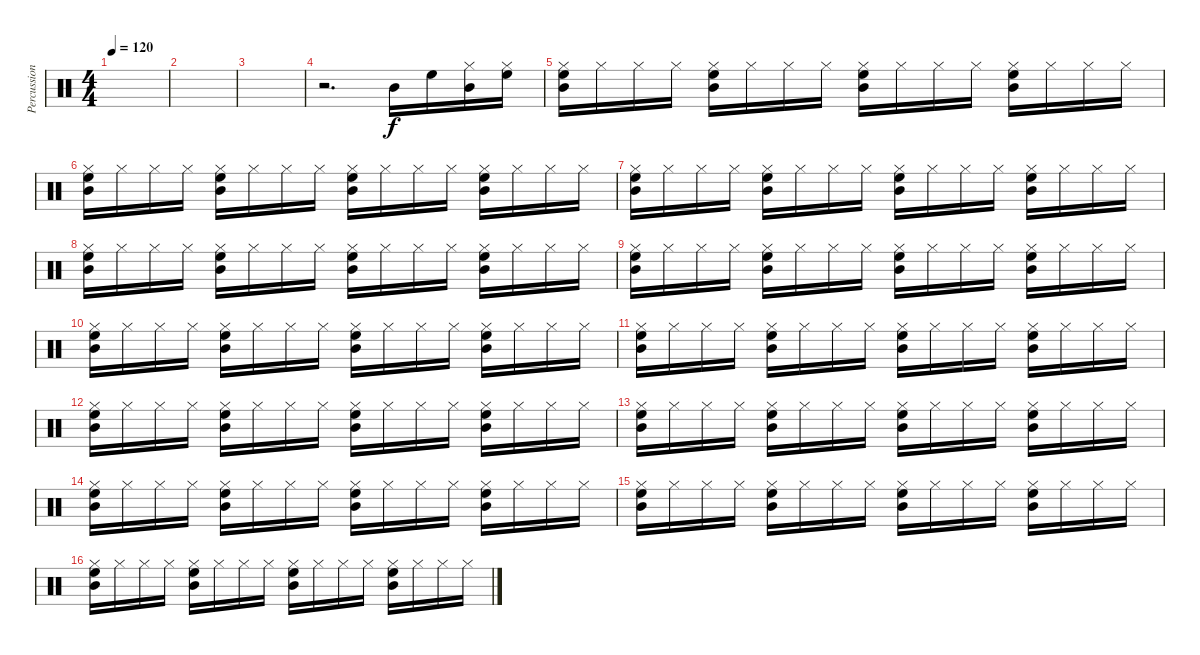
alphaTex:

\track ("Percussion" "Percussion") {instrument percussion}
\staff {score}
\articulation defaults
\ts (4 4)
\tempo 120
\clef neutral
\ks c
|
|
|
r.2{d} "Mid Tom (hit)".16 "High Floor Tom (hit)".16 ("Hi-Hat (closed)" "Mid Tom (hit)").16 ("Hi-Hat (closed)" "High Floor Tom (hit)").16 |
("Hi-Hat (closed)" "Mid Tom (hit)" "High Floor Tom (hit)").16 "Hi-Hat (closed)".16 "Hi-Hat (closed)".16 "Hi-Hat (closed)".16 ("Hi-Hat (closed)" "Mid Tom (hit)" "High Floor Tom (hit)").16 "Hi-Hat (closed)".16 "Hi-Hat (closed)".16 "Hi-Hat (closed)".16 ("Hi-Hat (closed)" "Mid Tom (hit)" "High Floor Tom (hit)").16 "Hi-Hat (closed)".16 "Hi-Hat (closed)".16 "Hi-Hat (closed)".16 ("Hi-Hat (closed)" "Mid Tom (hit)" "High Floor Tom (hit)").16 "Hi-Hat (closed)".16 "Hi-Hat (closed)".16 "Hi-Hat (closed)".16 |
("Hi-Hat (closed)" "Mid Tom (hit)" "High Floor Tom (hit)").16 "Hi-Hat (closed)".16 "Hi-Hat (closed)".16 "Hi-Hat (closed)".16 ("Hi-Hat (closed)" "Mid Tom (hit)" "High Floor Tom (hit)").16 "Hi-Hat (closed)".16 "Hi-Hat (closed)".16 "Hi-Hat (closed)".16 ("Hi-Hat (closed)" "Mid Tom (hit)" "High Floor Tom (hit)").16 "Hi-Hat (closed)".16 "Hi-Hat (closed)".16 "Hi-Hat (closed)".16 ("Hi-Hat (closed)" "Mid Tom (hit)" "High Floor Tom (hit)").16 "Hi-Hat (closed)".16 "Hi-Hat (closed)".16 "Hi-Hat (closed)".16 |
("Hi-Hat (closed)" "Mid Tom (hit)" "High Floor Tom (hit)").16 "Hi-Hat (closed)".16 "Hi-Hat (closed)".16 "Hi-Hat (closed)".16 ("Hi-Hat (closed)" "Mid Tom (hit)" "High Floor Tom (hit)").16 "Hi-Hat (closed)".16 "Hi-Hat (closed)".16 "Hi-Hat (closed)".16 ("Hi-Hat (closed)" "Mid Tom (hit)" "High Floor Tom (hit)").16 "Hi-Hat (closed)".16 "Hi-Hat (closed)".16 "Hi-Hat (closed)".16 ("Hi-Hat (closed)" "Mid Tom (hit)" "High Floor Tom (hit)").16 "Hi-Hat (closed)".16 "Hi-Hat (closed)".16 "Hi-Hat (closed)".16 |
("Hi-Hat (closed)" "Mid Tom (hit)" "High Floor Tom (hit)").16 "Hi-Hat (closed)".16 "Hi-Hat (closed)".16 "Hi-Hat (closed)".16 ("Hi-Hat (closed)" "Mid Tom (hit)" "High Floor Tom (hit)").16 "Hi-Hat (closed)".16 "Hi-Hat (closed)".16 "Hi-Hat (closed)".16 ("Hi-Hat (closed)" "Mid Tom (hit)" "High Floor Tom (hit)").16 "Hi-Hat (closed)".16 "Hi-Hat (closed)".16 "Hi-Hat (closed)".16 ("Hi-Hat (closed)" "Mid Tom (hit)" "High Floor Tom (hit)").16 "Hi-Hat (closed)".16 "Hi-Hat (closed)".16 "Hi-Hat (closed)".16 |
("Hi-Hat (closed)" "Mid Tom (hit)" "High Floor Tom (hit)").16 "Hi-Hat (closed)".16 "Hi-Hat (closed)".16 "Hi-Hat (closed)".16 ("Hi-Hat (closed)" "Mid Tom (hit)" "High Floor Tom (hit)").16 "Hi-Hat (closed)".16 "Hi-Hat (closed)".16 "Hi-Hat (closed)".16 ("Hi-Hat (closed)" "Mid Tom (hit)" "High Floor Tom (hit)").16 "Hi-Hat (closed)".16 "Hi-Hat (closed)".16 "Hi-Hat (closed)".16 ("Hi-Hat (closed)" "Mid Tom (hit)" "High Floor Tom (hit)").16 "Hi-Hat (closed)".16 "Hi-Hat (closed)".16 "Hi-Hat (closed)".16 |
("Hi-Hat (closed)" "Mid Tom (hit)" "High Floor Tom (hit)").16 "Hi-Hat (closed)".16 "Hi-Hat (closed)".16 "Hi-Hat (closed)".16 ("Hi-Hat (closed)" "Mid Tom (hit)" "High Floor Tom (hit)").16 "Hi-Hat (closed)".16 "Hi-Hat (closed)".16 "Hi-Hat (closed)".16 ("Hi-Hat (closed)" "Mid Tom (hit)" "High Floor Tom (hit)").16 "Hi-Hat (closed)".16 "Hi-Hat (closed)".16 "Hi-Hat (closed)".16 ("Hi-Hat (closed)" "Mid Tom (hit)" "High Floor Tom (hit)").16 "Hi-Hat (closed)".16 "Hi-Hat (closed)".16 "Hi-Hat (closed)".16 |
("Hi-Hat (closed)" "Mid Tom (hit)" "High Floor Tom (hit)").16 "Hi-Hat (closed)".16 "Hi-Hat (closed)".16 "Hi-Hat (closed)".16 ("Hi-Hat (closed)" "Mid Tom (hit)" "High Floor Tom (hit)").16 "Hi-Hat (closed)".16 "Hi-Hat (closed)".16 "Hi-Hat (closed)".16 ("Hi-Hat (closed)" "Mid Tom (hit)" "High Floor Tom (hit)").16 "Hi-Hat (closed)".16 "Hi-Hat (closed)".16 "Hi-Hat (closed)".16 ("Hi-Hat (closed)" "Mid Tom (hit)" "High Floor Tom (hit)").16 "Hi-Hat (closed)".16 "Hi-Hat (closed)".16 "Hi-Hat (closed)".16 |
("Hi-Hat (closed)" "Mid Tom (hit)" "High Floor Tom (hit)").16 "Hi-Hat (closed)".16 "Hi-Hat (closed)".16 "Hi-Hat (closed)".16 ("Hi-Hat (closed)" "Mid Tom (hit)" "High Floor Tom (hit)").16 "Hi-Hat (closed)".16 "Hi-Hat (closed)".16 "Hi-Hat (closed)".16 ("Hi-Hat (closed)" "Mid Tom (hit)" "High Floor Tom (hit)").16 "Hi-Hat (closed)".16 "Hi-Hat (closed)".16 "Hi-Hat (closed)".16 ("Hi-Hat (closed)" "Mid Tom (hit)" "High Floor Tom (hit)").16 "Hi-Hat (closed)".16 "Hi-Hat (closed)".16 "Hi-Hat (closed)".16 |
("Hi-Hat (closed)" "Mid Tom (hit)" "High Floor Tom (hit)").16 "Hi-Hat (closed)".16 "Hi-Hat (closed)".16 "Hi-Hat (closed)".16 ("Hi-Hat (closed)" "Mid Tom (hit)" "High Floor Tom (hit)").16 "Hi-Hat (closed)".16 "Hi-Hat (closed)".16 "Hi-Hat (closed)".16 ("Hi-Hat (closed)" "Mid Tom (hit)" "High Floor Tom (hit)").16 "Hi-Hat (closed)".16 "Hi-Hat (closed)".16 "Hi-Hat (closed)".16 ("Hi-Hat (closed)" "Mid Tom (hit)" "High Floor Tom (hit)").16 "Hi-Hat (closed)".16 "Hi-Hat (closed)".16 "Hi-Hat (closed)".16 |
("Hi-Hat (closed)" "Mid Tom (hit)" "High Floor Tom (hit)").16 "Hi-Hat (closed)".16 "Hi-Hat (closed)".16 "Hi-Hat (closed)".16 ("Hi-Hat (closed)" "Mid Tom (hit)" "High Floor Tom (hit)").16 "Hi-Hat (closed)".16 "Hi-Hat (closed)".16 "Hi-Hat (closed)".16 ("Hi-Hat (closed)" "Mid Tom (hit)" "High Floor Tom (hit)").16 "Hi-Hat (closed)".16 "Hi-Hat (closed)".16 "Hi-Hat (closed)".16 ("Hi-Hat (closed)" "Mid Tom (hit)" "High Floor Tom (hit)").16 "Hi-Hat (closed)".16 "Hi-Hat (closed)".16 "Hi-Hat (closed)".16 |
("Hi-Hat (closed)" "Mid Tom (hit)" "High Floor Tom (hit)").16 "Hi-Hat (closed)".16 "Hi-Hat (closed)".16 "Hi-Hat (closed)".16 ("Hi-Hat (closed)" "Mid Tom (hit)" "High Floor Tom (hit)").16 "Hi-Hat (closed)".16 "Hi-Hat (closed)".16 "Hi-Hat (closed)".16 ("Hi-Hat (closed)" "Mid Tom (hit)" "High Floor Tom (hit)").16 "Hi-Hat (closed)".16 "Hi-Hat (closed)".16 "Hi-Hat (closed)".16 ("Hi-Hat (closed)" "Mid Tom (hit)" "High Floor Tom (hit)").16 "Hi-Hat (closed)".16 "Hi-Hat (closed)".16 "Hi-Hat (closed)".16 |
("Hi-Hat (closed)" "Mid Tom (hit)" "High Floor Tom (hit)").16 "Hi-Hat (closed)".16 "Hi-Hat (closed)".16 "Hi-Hat (closed)".16 ("Hi-Hat (closed)" "Mid Tom (hit)" "High Floor Tom (hit)").16 "Hi-Hat (closed)".16 "Hi-Hat (closed)".16 "Hi-Hat (closed)".16 ("Hi-Hat (closed)" "Mid Tom (hit)" "High Floor Tom (hit)").16 "Hi-Hat (closed)".16 "Hi-Hat (closed)".16 "Hi-Hat (closed)".16 ("Hi-Hat (closed)" "Mid Tom (hit)" "High Floor Tom (hit)").16 "Hi-Hat (closed)".16 "Hi-Hat (closed)".16 "Hi-Hat (closed)".16
